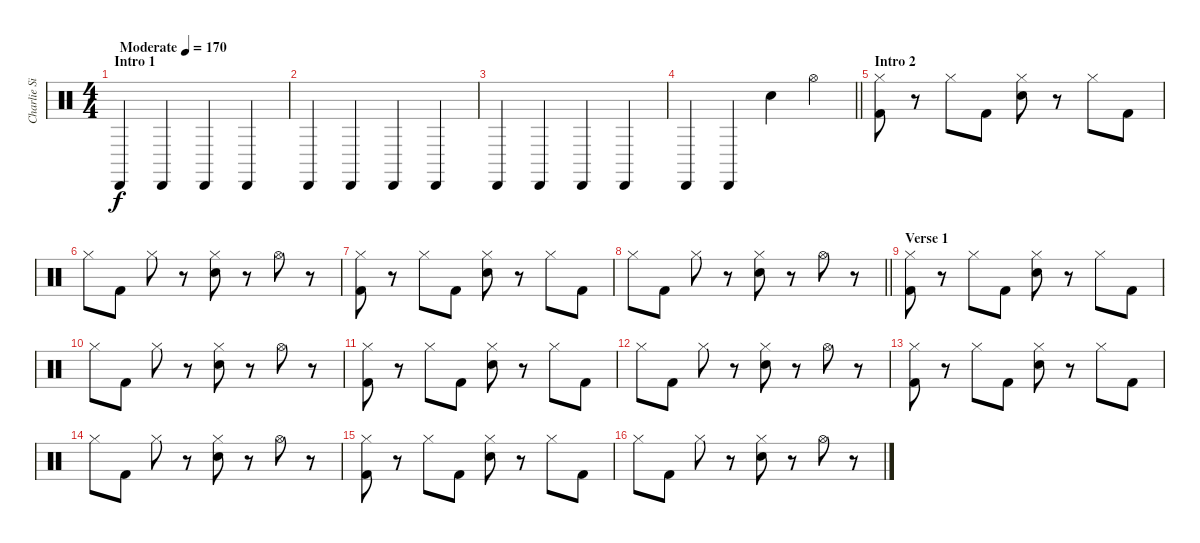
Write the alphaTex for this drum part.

\track ("Charlie Simpson (Drums)" "Charlie Si") {instrument percussion}
\staff {score}
\articulation defaults
\ts (4 4)
\section ("" "Intro 1")
\tempo (170 "Moderate")
\clef neutral
\ks c "Cabasa (hit)".4{dy f} "Cabasa (hit)".4 "Cabasa (hit)".4 "Cabasa (hit)".4
|
"Cabasa (hit)".4 "Cabasa (hit)".4 "Cabasa (hit)".4 "Cabasa (hit)".4 |
"Cabasa (hit)".4 "Cabasa (hit)".4 "Cabasa (hit)".4 "Cabasa (hit)".4 |
\barLineRight lightlight "Cabasa (hit)".4 "Cabasa (hit)".4 "Snare (hit) 2".4 "Hi-Hat (open)".4
|
\section ("" "Intro 2")
("Hi-Hat (closed)" "Kick (hit) 2").8 r.8 "Hi-Hat (closed)".8 "Kick (hit) 2".8 ("Hi-Hat (closed)" "Snare (hit) 2").8 r.8 "Hi-Hat (closed)".8 "Kick (hit) 2".8 |
"Hi-Hat (closed)".8 "Kick (hit) 2".8 "Hi-Hat (closed)".8 r.8 ("Hi-Hat (closed)" "Snare (hit) 2").8 r.8 "Hi-Hat (open)".8 r.8 |
("Hi-Hat (closed)" "Kick (hit) 2").8 r.8 "Hi-Hat (closed)".8 "Kick (hit) 2".8 ("Hi-Hat (closed)" "Snare (hit) 2").8 r.8 "Hi-Hat (closed)".8 "Kick (hit) 2".8 |
\barLineRight lightlight "Hi-Hat (closed)".8 "Kick (hit) 2".8 "Hi-Hat (closed)".8
r.8 ("Hi-Hat (closed)" "Snare (hit) 2").8 r.8 "Hi-Hat (open)".8 r.8 |
\section ("" "Verse 1")
("Hi-Hat (closed)" "Kick (hit) 2").8 r.8 "Hi-Hat (closed)".8 "Kick (hit) 2".8 ("Hi-Hat (closed)" "Snare (hit) 2").8 r.8 "Hi-Hat (closed)".8 "Kick (hit) 2".8 |
"Hi-Hat (closed)".8 "Kick (hit) 2".8 "Hi-Hat (closed)".8 r.8 ("Hi-Hat (closed)" "Snare (hit) 2").8 r.8 "Hi-Hat (open)".8 r.8 |
("Hi-Hat (closed)" "Kick (hit) 2").8 r.8 "Hi-Hat (closed)".8 "Kick (hit) 2".8 ("Hi-Hat (closed)" "Snare (hit) 2").8 r.8 "Hi-Hat (closed)".8 "Kick (hit) 2".8 |
"Hi-Hat (closed)".8 "Kick (hit) 2".8 "Hi-Hat (closed)".8 r.8 ("Hi-Hat (closed)" "Snare (hit) 2").8 r.8 "Hi-Hat (open)".8 r.8 |
("Hi-Hat (closed)" "Kick (hit) 2").8 r.8 "Hi-Hat (closed)".8 "Kick (hit) 2".8 ("Hi-Hat (closed)" "Snare (hit) 2").8 r.8 "Hi-Hat (closed)".8 "Kick (hit) 2".8 |
"Hi-Hat (closed)".8 "Kick (hit) 2".8 "Hi-Hat (closed)".8 r.8 ("Hi-Hat (closed)" "Snare (hit) 2").8 r.8 "Hi-Hat (open)".8 r.8 |
("Hi-Hat (closed)" "Kick (hit) 2").8 r.8 "Hi-Hat (closed)".8 "Kick (hit) 2".8 ("Hi-Hat (closed)" "Snare (hit) 2").8 r.8 "Hi-Hat (closed)".8 "Kick (hit) 2".8 |
"Hi-Hat (closed)".8 "Kick (hit) 2".8 "Hi-Hat (closed)".8 r.8 ("Hi-Hat (closed)" "Snare (hit) 2").8 r.8 "Hi-Hat (open)".8 r.8
